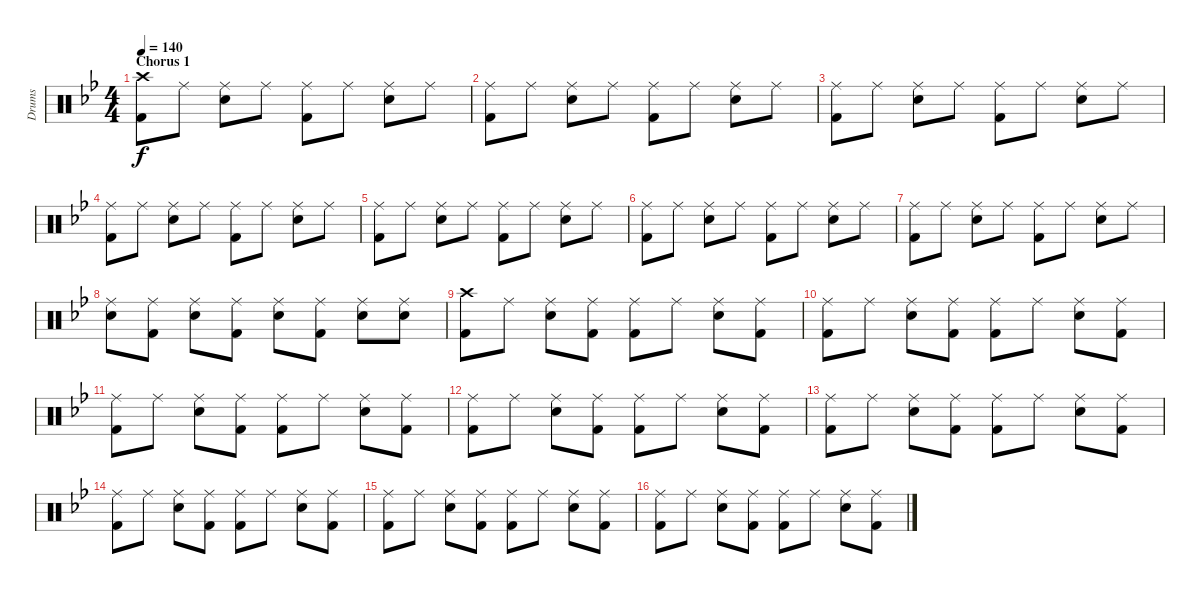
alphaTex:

\track ("Drums" "Drums") {instrument percussion}
\staff {score}
\articulation defaults
\ts (4 4)
\section ("" "Chorus 1")
\tempo 140
\clef neutral
\ks bb
("Crash high (hit)" "Kick (hit) 2").8{dy f} "Ride (middle)".8 ("Ride (middle)" "Snare (hit) 2").8 "Ride (middle)".8 ("Ride (middle)" "Kick (hit) 2").8 "Ride (middle)".8 ("Ride (middle)" "Snare (hit) 2").8 "Ride (middle)".8 |
("Ride (middle)" "Kick (hit) 2").8 "Ride (middle)".8 ("Ride (middle)" "Snare (hit) 2").8 "Ride (middle)".8 ("Ride (middle)" "Kick (hit) 2").8 "Ride (middle)".8 ("Ride (middle)" "Snare (hit) 2").8 "Ride (middle)".8 |
("Ride (middle)" "Kick (hit) 2").8 "Ride (middle)".8 ("Ride (middle)" "Snare (hit) 2").8 "Ride (middle)".8 ("Ride (middle)" "Kick (hit) 2").8 "Ride (middle)".8 ("Ride (middle)" "Snare (hit) 2").8 "Ride (middle)".8 |
("Ride (middle)" "Kick (hit) 2").8 "Ride (middle)".8 ("Ride (middle)" "Snare (hit) 2").8 "Ride (middle)".8 ("Ride (middle)" "Kick (hit) 2").8 "Ride (middle)".8 ("Ride (middle)" "Snare (hit) 2").8 "Ride (middle)".8 |
("Ride (middle)" "Kick (hit) 2").8 "Ride (middle)".8 ("Ride (middle)" "Snare (hit) 2").8 "Ride (middle)".8 ("Ride (middle)" "Kick (hit) 2").8 "Ride (middle)".8 ("Ride (middle)" "Snare (hit) 2").8 "Ride (middle)".8 |
("Ride (middle)" "Kick (hit) 2").8 "Ride (middle)".8 ("Ride (middle)" "Snare (hit) 2").8 "Ride (middle)".8 ("Ride (middle)" "Kick (hit) 2").8 "Ride (middle)".8 ("Ride (middle)" "Snare (hit) 2").8 "Ride (middle)".8 |
("Ride (middle)" "Kick (hit) 2").8 "Ride (middle)".8 ("Ride (middle)" "Snare (hit) 2").8 "Ride (middle)".8 ("Ride (middle)" "Kick (hit) 2").8 "Ride (middle)".8 ("Ride (middle)" "Snare (hit) 2").8 "Ride (middle)".8 |
("Ride (middle)" "Snare (hit) 2").8 ("Ride (middle)" "Kick (hit) 2").8 ("Ride (middle)" "Snare (hit) 2").8 ("Ride (middle)" "Kick (hit) 2").8 ("Ride (middle)" "Snare (hit) 2").8 ("Ride (middle)" "Kick (hit) 2").8 ("Ride (middle)" "Snare (hit) 2").8 ("Ride (middle)" "Snare (hit) 2").8 |
("Crash high (hit)" "Kick (hit) 2").8 "Ride (middle)".8 ("Ride (middle)" "Snare (hit) 2").8 ("Ride (middle)" "Kick (hit) 2").8 ("Ride (middle)" "Kick (hit) 2").8 "Ride (middle)".8 ("Ride (middle)" "Snare (hit) 2").8 ("Ride (middle)" "Kick (hit) 2").8 |
("Ride (middle)" "Kick (hit) 2").8 "Ride (middle)".8 ("Ride (middle)" "Snare (hit) 2").8 ("Ride (middle)" "Kick (hit) 2").8 ("Ride (middle)" "Kick (hit) 2").8 "Ride (middle)".8 ("Ride (middle)" "Snare (hit) 2").8 ("Ride (middle)" "Kick (hit) 2").8 |
("Ride (middle)" "Kick (hit) 2").8 "Ride (middle)".8 ("Ride (middle)" "Snare (hit) 2").8 ("Ride (middle)" "Kick (hit) 2").8 ("Ride (middle)" "Kick (hit) 2").8 "Ride (middle)".8 ("Ride (middle)" "Snare (hit) 2").8 ("Ride (middle)" "Kick (hit) 2").8 |
("Ride (middle)" "Kick (hit) 2").8 "Ride (middle)".8 ("Ride (middle)" "Snare (hit) 2").8 ("Ride (middle)" "Kick (hit) 2").8 ("Ride (middle)" "Kick (hit) 2").8 "Ride (middle)".8 ("Ride (middle)" "Snare (hit) 2").8 ("Ride (middle)" "Kick (hit) 2").8 |
("Ride (middle)" "Kick (hit) 2").8 "Ride (middle)".8 ("Ride (middle)" "Snare (hit) 2").8 ("Ride (middle)" "Kick (hit) 2").8 ("Ride (middle)" "Kick (hit) 2").8 "Ride (middle)".8 ("Ride (middle)" "Snare (hit) 2").8 ("Ride (middle)" "Kick (hit) 2").8 |
("Ride (middle)" "Kick (hit) 2").8 "Ride (middle)".8 ("Ride (middle)" "Snare (hit) 2").8 ("Ride (middle)" "Kick (hit) 2").8 ("Ride (middle)" "Kick (hit) 2").8 "Ride (middle)".8 ("Ride (middle)" "Snare (hit) 2").8 ("Ride (middle)" "Kick (hit) 2").8 |
("Ride (middle)" "Kick (hit) 2").8 "Ride (middle)".8 ("Ride (middle)" "Snare (hit) 2").8 ("Ride (middle)" "Kick (hit) 2").8 ("Ride (middle)" "Kick (hit) 2").8 "Ride (middle)".8 ("Ride (middle)" "Snare (hit) 2").8 ("Ride (middle)" "Kick (hit) 2").8 |
("Ride (middle)" "Kick (hit) 2").8 "Ride (middle)".8 ("Ride (middle)" "Snare (hit) 2").8 ("Ride (middle)" "Kick (hit) 2").8 ("Ride (middle)" "Kick (hit) 2").8 "Ride (middle)".8 ("Ride (middle)" "Snare (hit) 2").8 ("Ride (middle)" "Kick (hit) 2").8
